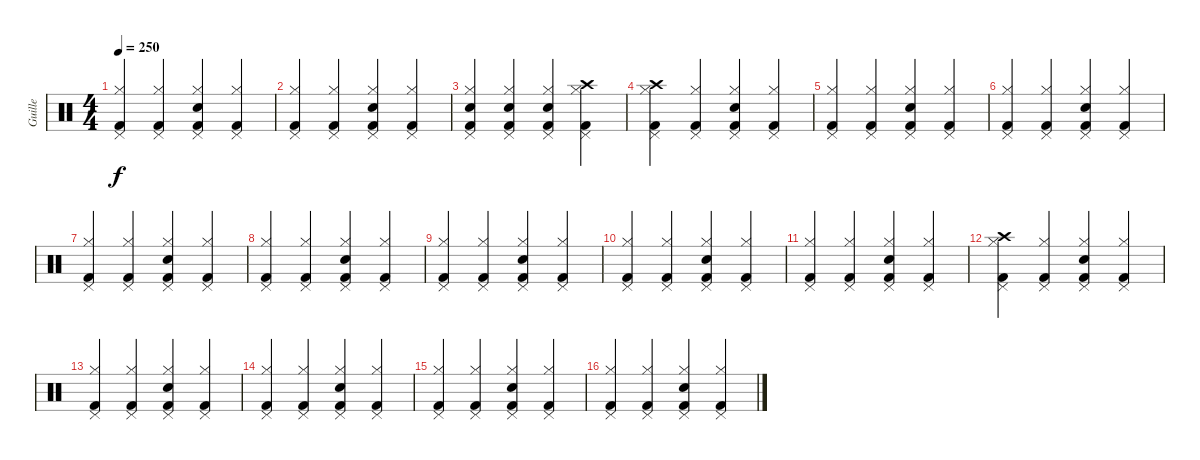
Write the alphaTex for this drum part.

\track ("Guille" "Guille") {instrument percussion}
\staff
\articulation defaults
\ts (4 4)
\tempo 250
\clef neutral
\ks c
("Kick (hit) 2" "Hi-Hat (closed)" "Pedal Hi-Hat (hit)").4{dy f} ("Kick (hit) 2" "Hi-Hat (closed)" "Pedal Hi-Hat (hit)").4 ("Kick (hit) 2" "Electric Snare (hit)" "Hi-Hat (closed)" "Pedal Hi-Hat (hit)").4 ("Kick (hit) 2" "Hi-Hat (closed)" "Pedal Hi-Hat (hit)").4 |
("Kick (hit) 2" "Hi-Hat (closed)" "Pedal Hi-Hat (hit)").4 ("Kick (hit) 2" "Hi-Hat (closed)" "Pedal Hi-Hat (hit)").4 ("Kick (hit) 2" "Electric Snare (hit)" "Hi-Hat (closed)" "Pedal Hi-Hat (hit)").4 ("Kick (hit) 2" "Hi-Hat (closed)" "Pedal Hi-Hat (hit)").4 |
("Kick (hit) 2" "Electric Snare (hit)" "Hi-Hat (closed)" "Pedal Hi-Hat (hit)").4 ("Kick (hit) 2" "Electric Snare (hit)" "Hi-Hat (closed)" "Pedal Hi-Hat (hit)").4 ("Kick (hit) 2" "Electric Snare (hit)" "Hi-Hat (closed)" "Pedal Hi-Hat (hit)").4 ("Kick (hit) 2" "Hi-Hat (closed)" "Pedal Hi-Hat (hit)" "Crash high (hit)").4 |
("Kick (hit) 2" "Hi-Hat (closed)" "Pedal Hi-Hat (hit)" "Crash high (hit)").4 ("Kick (hit) 2" "Hi-Hat (closed)" "Pedal Hi-Hat (hit)").4 ("Kick (hit) 2" "Electric Snare (hit)" "Hi-Hat (closed)" "Pedal Hi-Hat (hit)").4 ("Kick (hit) 2" "Hi-Hat (closed)" "Pedal Hi-Hat (hit)").4 |
("Kick (hit) 2" "Hi-Hat (closed)" "Pedal Hi-Hat (hit)").4 ("Kick (hit) 2" "Hi-Hat (closed)" "Pedal Hi-Hat (hit)").4 ("Kick (hit) 2" "Electric Snare (hit)" "Hi-Hat (closed)" "Pedal Hi-Hat (hit)").4 ("Kick (hit) 2" "Hi-Hat (closed)" "Pedal Hi-Hat (hit)").4 |
("Kick (hit) 2" "Hi-Hat (closed)" "Pedal Hi-Hat (hit)").4 ("Kick (hit) 2" "Hi-Hat (closed)" "Pedal Hi-Hat (hit)").4 ("Kick (hit) 2" "Electric Snare (hit)" "Hi-Hat (closed)" "Pedal Hi-Hat (hit)").4 ("Kick (hit) 2" "Hi-Hat (closed)" "Pedal Hi-Hat (hit)").4 |
("Kick (hit) 2" "Hi-Hat (closed)" "Pedal Hi-Hat (hit)").4 ("Kick (hit) 2" "Hi-Hat (closed)" "Pedal Hi-Hat (hit)").4 ("Kick (hit) 2" "Electric Snare (hit)" "Hi-Hat (closed)" "Pedal Hi-Hat (hit)").4 ("Kick (hit) 2" "Hi-Hat (closed)" "Pedal Hi-Hat (hit)").4 |
("Kick (hit) 2" "Hi-Hat (closed)" "Pedal Hi-Hat (hit)").4 ("Kick (hit) 2" "Hi-Hat (closed)" "Pedal Hi-Hat (hit)").4 ("Kick (hit) 2" "Electric Snare (hit)" "Hi-Hat (closed)" "Pedal Hi-Hat (hit)").4 ("Kick (hit) 2" "Hi-Hat (closed)" "Pedal Hi-Hat (hit)").4 |
("Kick (hit) 2" "Hi-Hat (closed)" "Pedal Hi-Hat (hit)").4 ("Kick (hit) 2" "Hi-Hat (closed)" "Pedal Hi-Hat (hit)").4 ("Kick (hit) 2" "Electric Snare (hit)" "Hi-Hat (closed)" "Pedal Hi-Hat (hit)").4 ("Kick (hit) 2" "Hi-Hat (closed)" "Pedal Hi-Hat (hit)").4 |
("Kick (hit) 2" "Hi-Hat (closed)" "Pedal Hi-Hat (hit)").4 ("Kick (hit) 2" "Hi-Hat (closed)" "Pedal Hi-Hat (hit)").4 ("Kick (hit) 2" "Electric Snare (hit)" "Hi-Hat (closed)" "Pedal Hi-Hat (hit)").4 ("Kick (hit) 2" "Hi-Hat (closed)" "Pedal Hi-Hat (hit)").4 |
("Kick (hit) 2" "Hi-Hat (closed)" "Pedal Hi-Hat (hit)").4 ("Kick (hit) 2" "Hi-Hat (closed)" "Pedal Hi-Hat (hit)").4 ("Kick (hit) 2" "Electric Snare (hit)" "Hi-Hat (closed)" "Pedal Hi-Hat (hit)").4 ("Kick (hit) 2" "Hi-Hat (closed)" "Pedal Hi-Hat (hit)").4 |
("Kick (hit) 2" "Hi-Hat (closed)" "Pedal Hi-Hat (hit)" "Crash high (hit)").4 ("Kick (hit) 2" "Hi-Hat (closed)" "Pedal Hi-Hat (hit)").4 ("Kick (hit) 2" "Electric Snare (hit)" "Hi-Hat (closed)" "Pedal Hi-Hat (hit)").4 ("Kick (hit) 2" "Hi-Hat (closed)" "Pedal Hi-Hat (hit)").4 |
("Kick (hit) 2" "Hi-Hat (closed)" "Pedal Hi-Hat (hit)").4 ("Kick (hit) 2" "Hi-Hat (closed)" "Pedal Hi-Hat (hit)").4 ("Kick (hit) 2" "Electric Snare (hit)" "Hi-Hat (closed)" "Pedal Hi-Hat (hit)").4 ("Kick (hit) 2" "Hi-Hat (closed)" "Pedal Hi-Hat (hit)").4 |
("Kick (hit) 2" "Hi-Hat (closed)" "Pedal Hi-Hat (hit)").4 ("Kick (hit) 2" "Hi-Hat (closed)" "Pedal Hi-Hat (hit)").4 ("Kick (hit) 2" "Electric Snare (hit)" "Hi-Hat (closed)" "Pedal Hi-Hat (hit)").4 ("Kick (hit) 2" "Hi-Hat (closed)" "Pedal Hi-Hat (hit)").4 |
("Kick (hit) 2" "Hi-Hat (closed)" "Pedal Hi-Hat (hit)").4 ("Kick (hit) 2" "Hi-Hat (closed)" "Pedal Hi-Hat (hit)").4 ("Kick (hit) 2" "Electric Snare (hit)" "Hi-Hat (closed)" "Pedal Hi-Hat (hit)").4 ("Kick (hit) 2" "Hi-Hat (closed)" "Pedal Hi-Hat (hit)").4 |
("Kick (hit) 2" "Hi-Hat (closed)" "Pedal Hi-Hat (hit)").4 ("Kick (hit) 2" "Hi-Hat (closed)" "Pedal Hi-Hat (hit)").4 ("Kick (hit) 2" "Electric Snare (hit)" "Hi-Hat (closed)" "Pedal Hi-Hat (hit)").4 ("Kick (hit) 2" "Hi-Hat (closed)" "Pedal Hi-Hat (hit)").4
